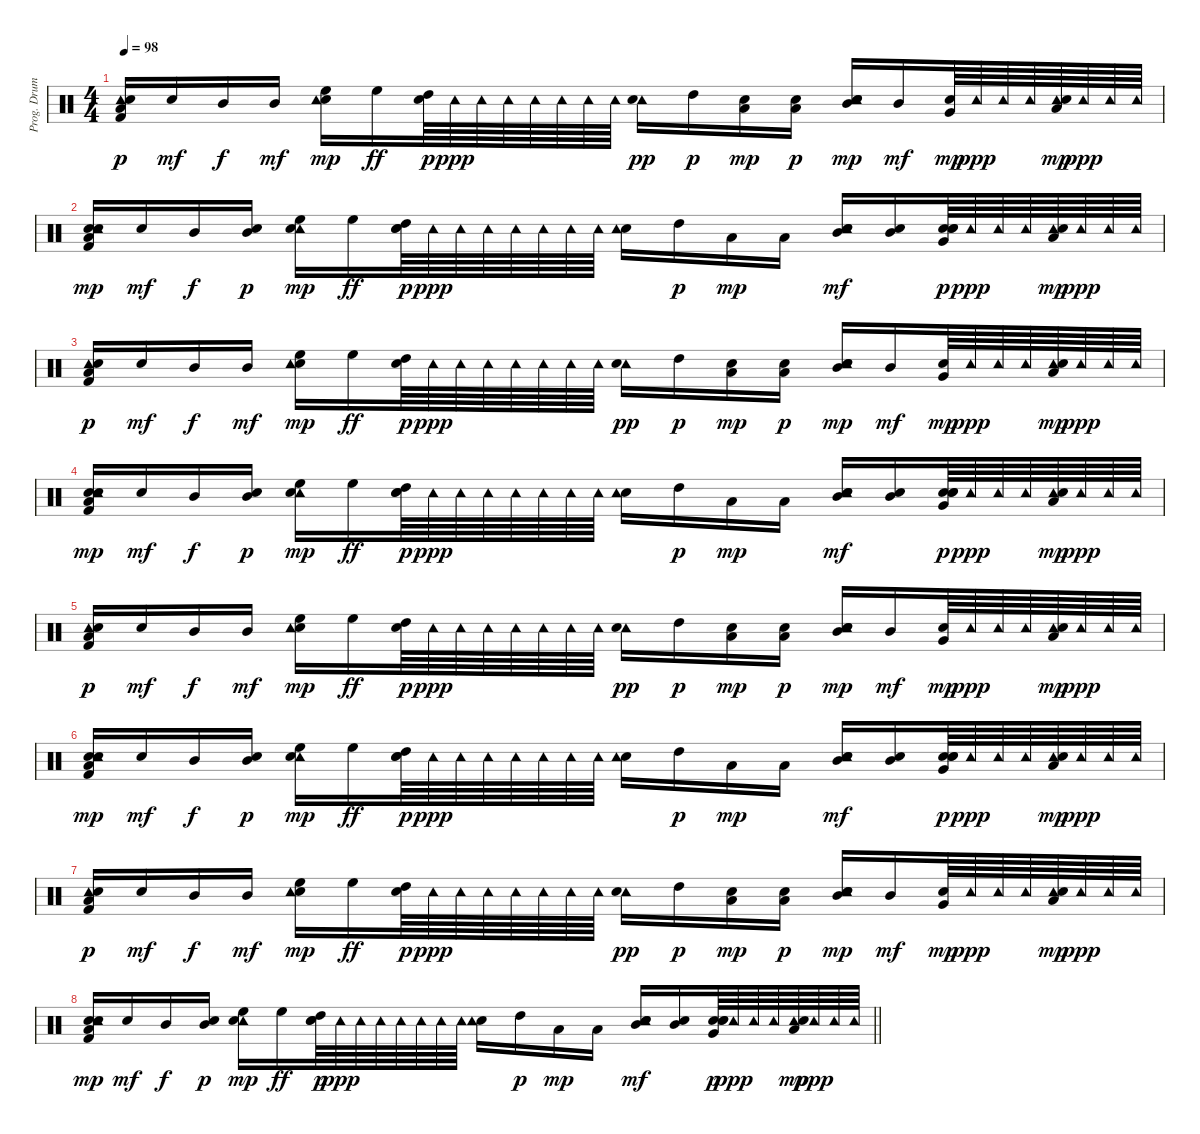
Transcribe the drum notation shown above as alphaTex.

\track ("Prog. Drums" "Prog. Drum") {instrument percussion}
\staff {score}
\articulation defaults
\ts (4 4)
\tempo 98
\clef neutral
\ks c
("Tambourine (hit)" "Snare (hit)" "Low Floor Tom (hit)" "Kick (hit) 2").16{dy p} "Snare (hit)".16{dy mf} "Mid Tom (hit)".16{dy f} "Mid Tom (hit)".16{dy mf} ("Snare (hit) 2" "High Floor Tom (hit)" "Tambourine (hit)").16{dy mp} "High Floor Tom (hit)".16{dy ff} ("High Tom (hit)" "Snare (hit)").64{dy p} "Tambourine (hit)".64{dy ppp} "Tambourine (hit)".64 "Tambourine (hit)".64 "Tambourine (hit)".64 "Tambourine (hit)".64 "Tambourine (hit)".64 "Tambourine (hit)".64 ("Tambourine (hit)" "Snare (hit) 2").16{dy pp} "High Tom (hit)".16{dy p} ("Snare (hit)" "Low Tom (hit)").16{dy mp} ("Low Tom (hit)" "Snare (hit)").16{dy p} ("Snare (hit) 2" "Mid Tom (hit)" "Snare (hit)" "Tambourine (hit)").16{dy mp} "Mid Tom (hit)".16{dy mf} ("Snare (hit)" "Very Low Tom (hit)").64{dy mp} "Tambourine (hit)".64{dy ppp} "Tambourine (hit)".64 "Tambourine (hit)".64 ("Tambourine (hit)" "Snare (hit) 2" "Low Tom (hit)").64{dy mp} "Tambourine (hit)".64{dy ppp} "Tambourine (hit)".64 "Tambourine (hit)".64 |
("Snare (hit)" "Snare (hit)" "Tambourine (hit)" "Kick (hit) 2" "Low Floor Tom (hit)").16{dy mp} "Snare (hit)".16{dy mf} "Mid Tom (hit)".16{dy f} ("Mid Tom (hit)" "Snare (hit)").16{dy p} ("Tambourine (hit)" "High Floor Tom (hit)" "Snare (hit) 2").16{dy mp} "High Floor Tom (hit)".16{dy ff} ("High Tom (hit)" "Snare (hit)" "Snare (hit)").64{dy p} "Tambourine (hit)".64{dy ppp} "Tambourine (hit)".64 "Tambourine (hit)".64 "Tambourine (hit)".64 "Tambourine (hit)".64 "Tambourine (hit)".64 "Tambourine (hit)".64 ("Snare (hit) 2" "Tambourine (hit)").16 "High Tom (hit)".16{dy p} "Low Tom (hit)".16{dy mp} "Low Tom (hit)".16 ("Tambourine (hit)" "Snare (hit)" "Snare (hit) 2" "Mid Tom (hit)").16{dy mf} ("Snare (hit) 2" "Mid Tom (hit)").16 ("Snare (hit) 2" "Very Low Tom (hit)" "Snare (hit)" "Snare (hit)").64{dy p} "Tambourine (hit)".64{dy ppp} "Tambourine (hit)".64 "Tambourine (hit)".64 ("Tambourine (hit)" "Snare (hit) 2" "Low Tom (hit)").64{dy mp} "Tambourine (hit)".64{dy ppp} "Tambourine (hit)".64 "Tambourine (hit)".64 |
("Tambourine (hit)" "Snare (hit)" "Low Floor Tom (hit)" "Kick (hit) 2").16{dy p} "Snare (hit)".16{dy mf} "Mid Tom (hit)".16{dy f} "Mid Tom (hit)".16{dy mf} ("Snare (hit) 2" "High Floor Tom (hit)" "Tambourine (hit)").16{dy mp} "High Floor Tom (hit)".16{dy ff} ("High Tom (hit)" "Snare (hit)").64{dy p} "Tambourine (hit)".64{dy ppp} "Tambourine (hit)".64 "Tambourine (hit)".64 "Tambourine (hit)".64 "Tambourine (hit)".64 "Tambourine (hit)".64 "Tambourine (hit)".64 ("Tambourine (hit)" "Snare (hit) 2").16{dy pp} "High Tom (hit)".16{dy p} ("Snare (hit)" "Low Tom (hit)").16{dy mp} ("Low Tom (hit)" "Snare (hit)").16{dy p} ("Snare (hit) 2" "Mid Tom (hit)" "Snare (hit)" "Tambourine (hit)").16{dy mp} "Mid Tom (hit)".16{dy mf} ("Snare (hit)" "Very Low Tom (hit)").64{dy mp} "Tambourine (hit)".64{dy ppp} "Tambourine (hit)".64 "Tambourine (hit)".64 ("Tambourine (hit)" "Snare (hit) 2" "Low Tom (hit)").64{dy mp} "Tambourine (hit)".64{dy ppp} "Tambourine (hit)".64 "Tambourine (hit)".64 |
("Snare (hit)" "Snare (hit)" "Tambourine (hit)" "Kick (hit) 2" "Low Floor Tom (hit)").16{dy mp} "Snare (hit)".16{dy mf} "Mid Tom (hit)".16{dy f} ("Mid Tom (hit)" "Snare (hit)").16{dy p} ("Tambourine (hit)" "High Floor Tom (hit)" "Snare (hit) 2").16{dy mp} "High Floor Tom (hit)".16{dy ff} ("High Tom (hit)" "Snare (hit)" "Snare (hit)").64{dy p} "Tambourine (hit)".64{dy ppp} "Tambourine (hit)".64 "Tambourine (hit)".64 "Tambourine (hit)".64 "Tambourine (hit)".64 "Tambourine (hit)".64 "Tambourine (hit)".64 ("Snare (hit) 2" "Tambourine (hit)").16 "High Tom (hit)".16{dy p} "Low Tom (hit)".16{dy mp} "Low Tom (hit)".16 ("Tambourine (hit)" "Snare (hit)" "Snare (hit) 2" "Mid Tom (hit)").16{dy mf} ("Snare (hit) 2" "Mid Tom (hit)").16 ("Snare (hit) 2" "Very Low Tom (hit)" "Snare (hit)" "Snare (hit)").64{dy p} "Tambourine (hit)".64{dy ppp} "Tambourine (hit)".64 "Tambourine (hit)".64 ("Tambourine (hit)" "Snare (hit) 2" "Low Tom (hit)").64{dy mp} "Tambourine (hit)".64{dy ppp} "Tambourine (hit)".64 "Tambourine (hit)".64 |
("Tambourine (hit)" "Snare (hit)" "Low Floor Tom (hit)" "Kick (hit) 2").16{dy p} "Snare (hit)".16{dy mf} "Mid Tom (hit)".16{dy f} "Mid Tom (hit)".16{dy mf} ("Snare (hit) 2" "High Floor Tom (hit)" "Tambourine (hit)").16{dy mp} "High Floor Tom (hit)".16{dy ff} ("High Tom (hit)" "Snare (hit)").64{dy p} "Tambourine (hit)".64{dy ppp} "Tambourine (hit)".64 "Tambourine (hit)".64 "Tambourine (hit)".64 "Tambourine (hit)".64 "Tambourine (hit)".64 "Tambourine (hit)".64 ("Tambourine (hit)" "Snare (hit) 2").16{dy pp} "High Tom (hit)".16{dy p} ("Snare (hit)" "Low Tom (hit)").16{dy mp} ("Low Tom (hit)" "Snare (hit)").16{dy p} ("Snare (hit) 2" "Mid Tom (hit)" "Snare (hit)" "Tambourine (hit)").16{dy mp} "Mid Tom (hit)".16{dy mf} ("Snare (hit)" "Very Low Tom (hit)").64{dy mp} "Tambourine (hit)".64{dy ppp} "Tambourine (hit)".64 "Tambourine (hit)".64 ("Tambourine (hit)" "Snare (hit) 2" "Low Tom (hit)").64{dy mp} "Tambourine (hit)".64{dy ppp} "Tambourine (hit)".64 "Tambourine (hit)".64 |
("Snare (hit)" "Snare (hit)" "Tambourine (hit)" "Kick (hit) 2" "Low Floor Tom (hit)").16{dy mp} "Snare (hit)".16{dy mf} "Mid Tom (hit)".16{dy f} ("Mid Tom (hit)" "Snare (hit)").16{dy p} ("Tambourine (hit)" "High Floor Tom (hit)" "Snare (hit) 2").16{dy mp} "High Floor Tom (hit)".16{dy ff} ("High Tom (hit)" "Snare (hit)" "Snare (hit)").64{dy p} "Tambourine (hit)".64{dy ppp} "Tambourine (hit)".64 "Tambourine (hit)".64 "Tambourine (hit)".64 "Tambourine (hit)".64 "Tambourine (hit)".64 "Tambourine (hit)".64 ("Snare (hit) 2" "Tambourine (hit)").16 "High Tom (hit)".16{dy p} "Low Tom (hit)".16{dy mp} "Low Tom (hit)".16 ("Tambourine (hit)" "Snare (hit)" "Snare (hit) 2" "Mid Tom (hit)").16{dy mf} ("Snare (hit) 2" "Mid Tom (hit)").16 ("Snare (hit) 2" "Very Low Tom (hit)" "Snare (hit)" "Snare (hit)").64{dy p} "Tambourine (hit)".64{dy ppp} "Tambourine (hit)".64 "Tambourine (hit)".64 ("Tambourine (hit)" "Snare (hit) 2" "Low Tom (hit)").64{dy mp} "Tambourine (hit)".64{dy ppp} "Tambourine (hit)".64 "Tambourine (hit)".64 |
("Tambourine (hit)" "Snare (hit)" "Low Floor Tom (hit)" "Kick (hit) 2").16{dy p} "Snare (hit)".16{dy mf} "Mid Tom (hit)".16{dy f} "Mid Tom (hit)".16{dy mf} ("Snare (hit) 2" "High Floor Tom (hit)" "Tambourine (hit)").16{dy mp} "High Floor Tom (hit)".16{dy ff} ("High Tom (hit)" "Snare (hit)").64{dy p} "Tambourine (hit)".64{dy ppp} "Tambourine (hit)".64 "Tambourine (hit)".64 "Tambourine (hit)".64 "Tambourine (hit)".64 "Tambourine (hit)".64 "Tambourine (hit)".64 ("Tambourine (hit)" "Snare (hit) 2").16{dy pp} "High Tom (hit)".16{dy p} ("Snare (hit)" "Low Tom (hit)").16{dy mp} ("Low Tom (hit)" "Snare (hit)").16{dy p} ("Snare (hit) 2" "Mid Tom (hit)" "Snare (hit)" "Tambourine (hit)").16{dy mp} "Mid Tom (hit)".16{dy mf} ("Snare (hit)" "Very Low Tom (hit)").64{dy mp} "Tambourine (hit)".64{dy ppp} "Tambourine (hit)".64 "Tambourine (hit)".64 ("Tambourine (hit)" "Snare (hit) 2" "Low Tom (hit)").64{dy mp} "Tambourine (hit)".64{dy ppp} "Tambourine (hit)".64 "Tambourine (hit)".64 |
\barLineRight lightlight
("Snare (hit)" "Snare (hit)" "Tambourine (hit)" "Kick (hit) 2" "Low Floor Tom (hit)").16{dy mp} "Snare (hit)".16{dy mf} "Mid Tom (hit)".16{dy f} ("Mid Tom (hit)" "Snare (hit)").16{dy p} ("Tambourine (hit)" "High Floor Tom (hit)" "Snare (hit) 2").16{dy mp} "High Floor Tom (hit)".16{dy ff} ("High Tom (hit)" "Snare (hit)" "Snare (hit)").64{dy p} "Tambourine (hit)".64{dy ppp} "Tambourine (hit)".64 "Tambourine (hit)".64 "Tambourine (hit)".64 "Tambourine (hit)".64 "Tambourine (hit)".64 "Tambourine (hit)".64 ("Snare (hit) 2" "Tambourine (hit)").16 "High Tom (hit)".16{dy p} "Low Tom (hit)".16{dy mp} "Low Tom (hit)".16 ("Tambourine (hit)" "Snare (hit)" "Snare (hit) 2" "Mid Tom (hit)").16{dy mf} ("Snare (hit) 2" "Mid Tom (hit)").16 ("Snare (hit) 2" "Very Low Tom (hit)" "Snare (hit)" "Snare (hit)").64{dy p} "Tambourine (hit)".64{dy ppp} "Tambourine (hit)".64 "Tambourine (hit)".64 ("Tambourine (hit)" "Snare (hit) 2" "Low Tom (hit)").64{dy mp} "Tambourine (hit)".64{dy ppp} "Tambourine (hit)".64 "Tambourine (hit)".64
